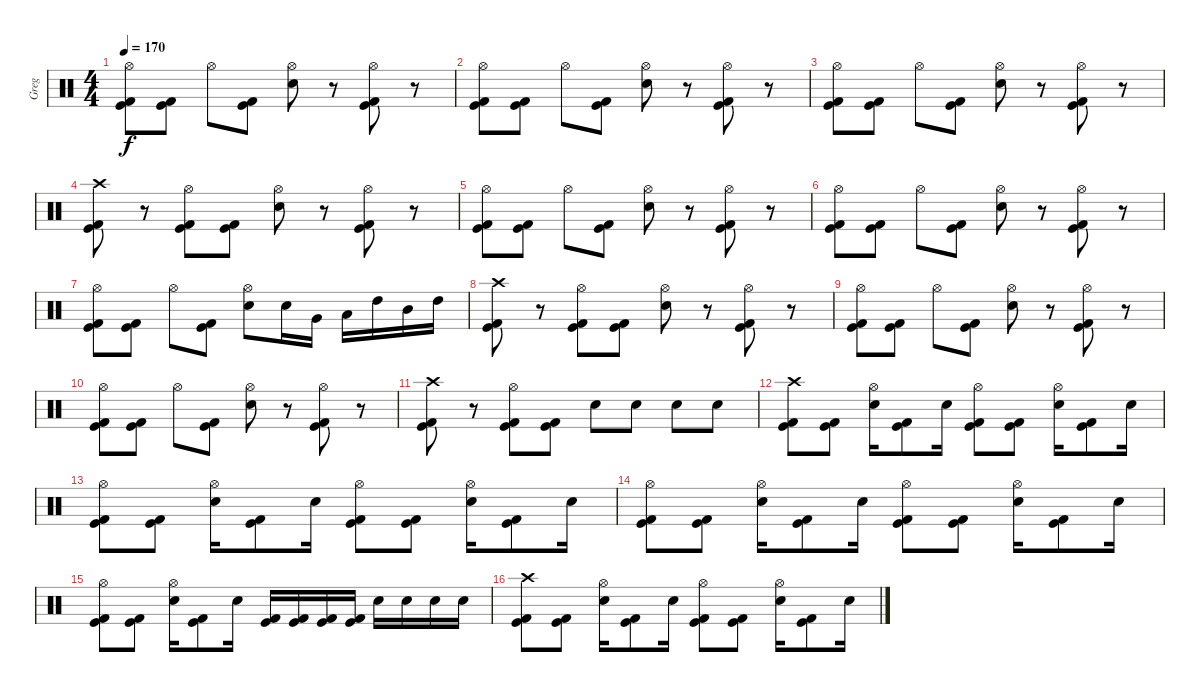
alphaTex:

\track ("Greg" "Greg") {instrument percussion}
\staff {score}
\articulation defaults
\ts (4 4)
\tempo 170
\clef neutral
\ks c
("Hi-Hat (open)" "Kick (hit)" "Kick (hit) 2").8{dy f} ("Kick (hit)" "Kick (hit) 2").8 "Hi-Hat (open)".8 ("Kick (hit)" "Kick (hit) 2").8 ("Hi-Hat (open)" "Snare (hit) 2").8 r.8 ("Hi-Hat (open)" "Kick (hit)" "Kick (hit) 2").8 r.8 |
("Hi-Hat (open)" "Kick (hit)" "Kick (hit) 2").8 ("Kick (hit)" "Kick (hit) 2").8 "Hi-Hat (open)".8 ("Kick (hit)" "Kick (hit) 2").8 ("Hi-Hat (open)" "Snare (hit) 2").8 r.8 ("Hi-Hat (open)" "Kick (hit)" "Kick (hit) 2").8 r.8 |
("Hi-Hat (open)" "Kick (hit)" "Kick (hit) 2").8 ("Kick (hit)" "Kick (hit) 2").8 "Hi-Hat (open)".8 ("Kick (hit)" "Kick (hit) 2").8 ("Hi-Hat (open)" "Snare (hit) 2").8 r.8 ("Hi-Hat (open)" "Kick (hit)" "Kick (hit) 2").8 r.8 |
("Crash high (hit)" "Kick (hit)" "Kick (hit) 2").8 r.8 ("Hi-Hat (open)" "Kick (hit)" "Kick (hit) 2").8 ("Kick (hit)" "Kick (hit) 2").8 ("Hi-Hat (open)" "Snare (hit) 2").8 r.8 ("Hi-Hat (open)" "Kick (hit)" "Kick (hit) 2").8 r.8 |
("Hi-Hat (open)" "Kick (hit)" "Kick (hit) 2").8 ("Kick (hit)" "Kick (hit) 2").8 "Hi-Hat (open)".8 ("Kick (hit)" "Kick (hit) 2").8 ("Hi-Hat (open)" "Snare (hit) 2").8 r.8 ("Hi-Hat (open)" "Kick (hit)" "Kick (hit) 2").8 r.8 |
("Hi-Hat (open)" "Kick (hit)" "Kick (hit) 2").8 ("Kick (hit)" "Kick (hit) 2").8 "Hi-Hat (open)".8 ("Kick (hit)" "Kick (hit) 2").8 ("Hi-Hat (open)" "Snare (hit) 2").8 r.8 ("Hi-Hat (open)" "Kick (hit)" "Kick (hit) 2").8 r.8 |
("Hi-Hat (open)" "Kick (hit)" "Kick (hit) 2").8 ("Kick (hit)" "Kick (hit) 2").8 "Hi-Hat (open)".8 ("Kick (hit)" "Kick (hit) 2").8 ("Hi-Hat (open)" "Snare (hit) 2").8 "Snare (hit) 2".16 "Very Low Tom (hit)".16 "Low Tom (hit)".16 "High Tom (hit)".16 "Mid Tom (hit)".16 "High Tom (hit)".16 |
("Crash high (hit)" "Kick (hit)" "Kick (hit) 2").8 r.8 ("Hi-Hat (open)" "Kick (hit)" "Kick (hit) 2").8 ("Kick (hit)" "Kick (hit) 2").8 ("Hi-Hat (open)" "Snare (hit) 2").8 r.8 ("Hi-Hat (open)" "Kick (hit)" "Kick (hit) 2").8 r.8 |
("Hi-Hat (open)" "Kick (hit)" "Kick (hit) 2").8 ("Kick (hit)" "Kick (hit) 2").8 "Hi-Hat (open)".8 ("Kick (hit)" "Kick (hit) 2").8 ("Hi-Hat (open)" "Snare (hit) 2").8 r.8 ("Hi-Hat (open)" "Kick (hit)" "Kick (hit) 2").8 r.8 |
("Hi-Hat (open)" "Kick (hit)" "Kick (hit) 2").8 ("Kick (hit)" "Kick (hit) 2").8 "Hi-Hat (open)".8 ("Kick (hit)" "Kick (hit) 2").8 ("Hi-Hat (open)" "Snare (hit) 2").8 r.8 ("Hi-Hat (open)" "Kick (hit)" "Kick (hit) 2").8 r.8 |
("Crash high (hit)" "Kick (hit)" "Kick (hit) 2").8 r.8 ("Hi-Hat (open)" "Kick (hit)" "Kick (hit) 2").8 ("Kick (hit)" "Kick (hit) 2").8 "Snare (hit) 2".8 "Snare (hit) 2".8 "Snare (hit) 2".8 "Snare (hit) 2".8 |
("Crash high (hit)" "Kick (hit)" "Kick (hit) 2").8 ("Kick (hit)" "Kick (hit) 2").8 ("Hi-Hat (open)" "Snare (hit) 2").16 ("Kick (hit)" "Kick (hit) 2").8 "Snare (hit) 2".16 ("Hi-Hat (open)" "Kick (hit)" "Kick (hit) 2").8 ("Kick (hit)" "Kick (hit) 2").8 ("Hi-Hat (open)" "Snare (hit) 2").16 ("Kick (hit)" "Kick (hit) 2").8 "Snare (hit) 2".16 |
("Hi-Hat (open)" "Kick (hit)" "Kick (hit) 2").8 ("Kick (hit)" "Kick (hit) 2").8 ("Hi-Hat (open)" "Snare (hit) 2").16 ("Kick (hit)" "Kick (hit) 2").8 "Snare (hit) 2".16 ("Hi-Hat (open)" "Kick (hit)" "Kick (hit) 2").8 ("Kick (hit)" "Kick (hit) 2").8 ("Hi-Hat (open)" "Snare (hit) 2").16 ("Kick (hit)" "Kick (hit) 2").8 "Snare (hit) 2".16 |
("Hi-Hat (open)" "Kick (hit)" "Kick (hit) 2").8 ("Kick (hit)" "Kick (hit) 2").8 ("Hi-Hat (open)" "Snare (hit) 2").16 ("Kick (hit)" "Kick (hit) 2").8 "Snare (hit) 2".16 ("Hi-Hat (open)" "Kick (hit)" "Kick (hit) 2").8 ("Kick (hit)" "Kick (hit) 2").8 ("Hi-Hat (open)" "Snare (hit) 2").16 ("Kick (hit)" "Kick (hit) 2").8 "Snare (hit) 2".16 |
("Hi-Hat (open)" "Kick (hit)" "Kick (hit) 2").8 ("Kick (hit)" "Kick (hit) 2").8 ("Hi-Hat (open)" "Snare (hit) 2").16 ("Kick (hit)" "Kick (hit) 2").8 "Snare (hit) 2".16 ("Kick (hit)" "Kick (hit) 2").16 ("Kick (hit)" "Kick (hit) 2").16 ("Kick (hit)" "Kick (hit) 2").16 ("Kick (hit)" "Kick (hit) 2").16 "Snare (hit) 2".16 "Snare (hit) 2".16 "Snare (hit) 2".16 "Snare (hit) 2".16 |
("Crash high (hit)" "Kick (hit)" "Kick (hit) 2").8 ("Kick (hit)" "Kick (hit) 2").8 ("Hi-Hat (open)" "Snare (hit) 2").16 ("Kick (hit)" "Kick (hit) 2").8 "Snare (hit) 2".16 ("Hi-Hat (open)" "Kick (hit)" "Kick (hit) 2").8 ("Kick (hit)" "Kick (hit) 2").8 ("Hi-Hat (open)" "Snare (hit) 2").16 ("Kick (hit)" "Kick (hit) 2").8 "Snare (hit) 2".16
